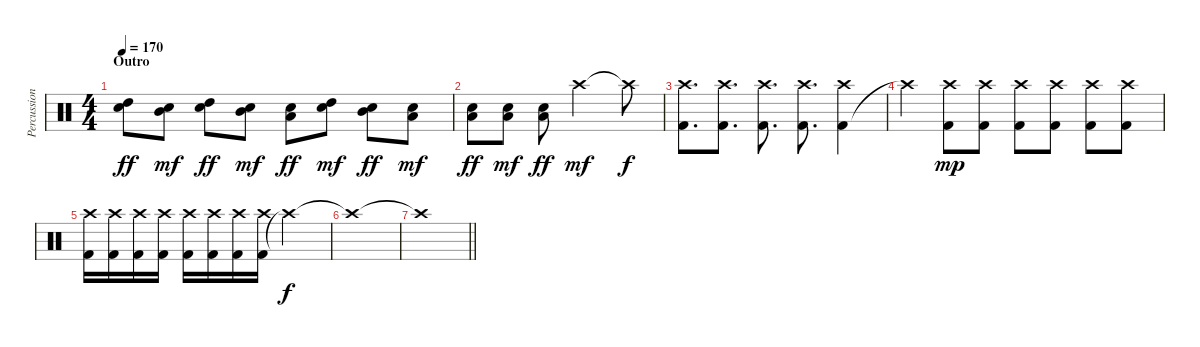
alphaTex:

\track ("Percussion" "Percussion") {instrument percussion}
\staff {score}
\articulation defaults
\ts (4 4)
\section ("" "Outro")
\tempo 170
\clef neutral
\ks c
("Electric Snare (hit)" "High Tom (hit)").8{dy ff} ("Electric Snare (hit)" "Mid Tom (hit)").8{dy mf} ("Electric Snare (hit)" "High Tom (hit)").8{dy ff} ("Electric Snare (hit)" "Mid Tom (hit)").8{dy mf} ("Electric Snare (hit)" "Low Tom (hit)").8{dy ff} ("Electric Snare (hit)" "High Tom (hit)").8{dy mf} ("Electric Snare (hit)" "Mid Tom (hit)").8{dy ff} ("Electric Snare (hit)" "Low Tom (hit)").8{dy mf} |
("Electric Snare (hit)" "Low Tom (hit)").8{dy ff} ("Electric Snare (hit)" "Low Tom (hit)").8{dy mf} ("Electric Snare (hit)" "Low Tom (hit)").8{dy ff} "Crash high (hit)".2{dy mf} "Crash high (hit)"{t}.8{dy f} |
("Kick (hit) 2" "Crash high (hit)").8{d} ("Kick (hit) 2" "Crash high (hit)").8{d} ("Kick (hit) 2" "Crash high (hit)").8{d} ("Kick (hit) 2" "Crash high (hit)").8{d} ("Kick (hit) 2" "Crash high (hit)").4 |
"Crash high (hit)"{t}.4 ("Kick (hit) 2" "Crash high (hit)").8{dy mp} ("Kick (hit) 2" "Crash high (hit)").8 ("Kick (hit) 2" "Crash high (hit)").8 ("Kick (hit) 2" "Crash high (hit)").8 ("Kick (hit) 2" "Crash high (hit)").8 ("Kick (hit) 2" "Crash high (hit)").8 |
("Kick (hit) 2" "Crash high (hit)").16 ("Kick (hit) 2" "Crash high (hit)").16 ("Kick (hit) 2" "Crash high (hit)").16 ("Kick (hit) 2" "Crash high (hit)").16 ("Kick (hit) 2" "Crash high (hit)").16 ("Kick (hit) 2" "Crash high (hit)").16 ("Kick (hit) 2" "Crash high (hit)").16 ("Kick (hit) 2" "Crash high (hit)").16 "Crash high (hit)"{t}.2{dy f} |
"Crash high (hit)"{t}.1 |
\barLineRight lightlight "Crash high (hit)"{t}.1
